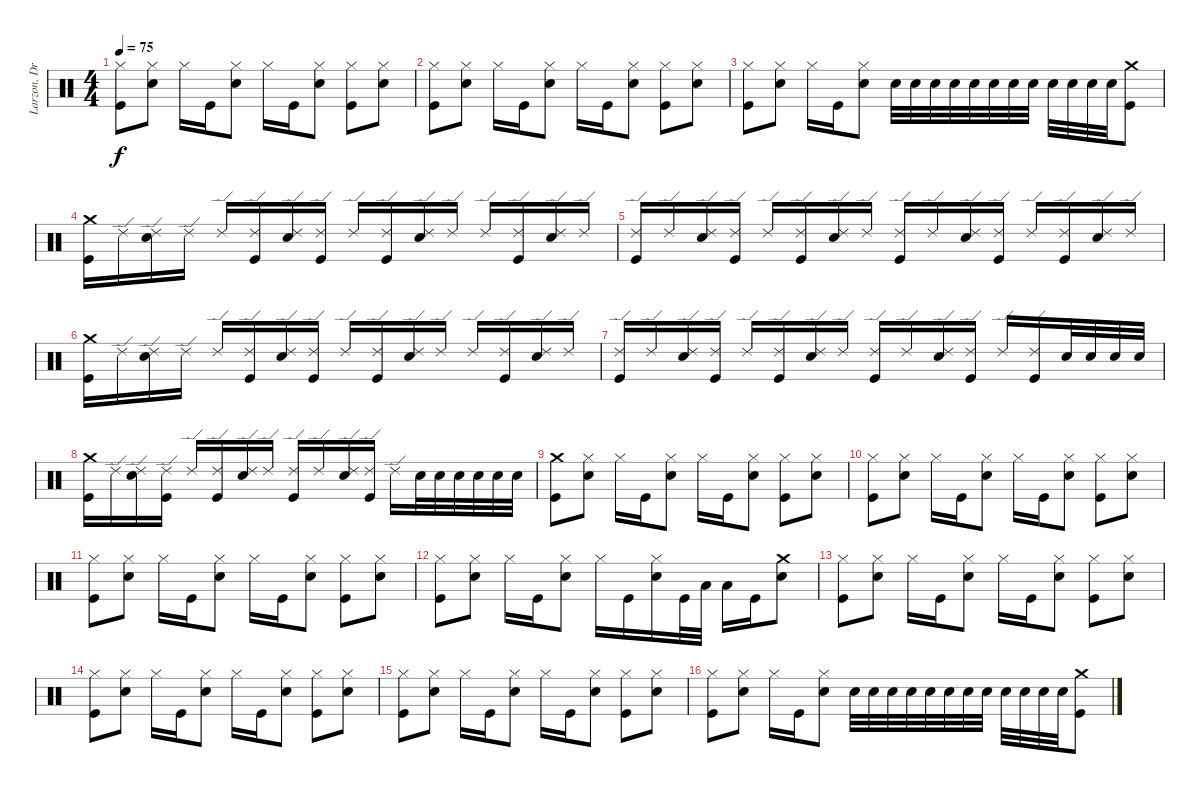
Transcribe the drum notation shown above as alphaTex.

\track ("Larzon, Drums" "Larzon, Dr") {instrument percussion}
\staff {score}
\articulation defaults
\ts (4 4)
\tempo 75
\clef neutral
\ks c
("Hi-Hat (closed)" "Kick (hit)").8{dy f} ("Hi-Hat (closed)" "Snare (hit) 2").8 "Hi-Hat (closed)".16 "Kick (hit)".16 ("Hi-Hat (closed)" "Snare (hit) 2").8 "Hi-Hat (closed)".16 "Kick (hit)".16 ("Hi-Hat (closed)" "Snare (hit) 2").8 ("Hi-Hat (closed)" "Kick (hit)").8 ("Hi-Hat (closed)" "Snare (hit) 2").8 |
("Hi-Hat (closed)" "Kick (hit)").8 ("Hi-Hat (closed)" "Snare (hit) 2").8 "Hi-Hat (closed)".16 "Kick (hit)".16 ("Hi-Hat (closed)" "Snare (hit) 2").8 "Hi-Hat (closed)".16 "Kick (hit)".16 ("Hi-Hat (closed)" "Snare (hit) 2").8 ("Hi-Hat (closed)" "Kick (hit)").8 ("Hi-Hat (closed)" "Snare (hit) 2").8 |
("Hi-Hat (closed)" "Kick (hit)").8 ("Hi-Hat (closed)" "Snare (hit) 2").8 "Hi-Hat (closed)".16 "Kick (hit)".16 ("Hi-Hat (closed)" "Snare (hit) 2").8 "Snare (hit) 2".32 "Snare (hit) 2".32 "Snare (hit) 2".32 "Snare (hit) 2".32 "Snare (hit) 2".32 "Snare (hit) 2".32 "Snare (hit) 2".32 "Snare (hit) 2".32 "Snare (hit) 2".32 "Snare (hit) 2".32 "Snare (hit) 2".32 "Snare (hit) 2".32 ("Crash medium (hit)" "Kick (hit)").8 |
("Crash medium (hit)" "Kick (hit)").16 "Ride (edge) 2".16 ("Ride (edge) 2" "Snare (hit) 2").16 "Ride (edge) 2".16 "Ride (edge) 2".16 ("Ride (edge) 2" "Kick (hit)").16 ("Ride (edge) 2" "Snare (hit) 2").16 ("Ride (edge) 2" "Kick (hit)").16 "Ride (edge) 2".16 ("Ride (edge) 2" "Kick (hit)").16 ("Ride (edge) 2" "Snare (hit) 2").16 "Ride (edge) 2".16 "Ride (edge) 2".16 ("Ride (edge) 2" "Kick (hit)").16 ("Ride (edge) 2" "Snare (hit) 2").16 "Ride (edge) 2".16 |
("Ride (edge) 2" "Kick (hit)").16 "Ride (edge) 2".16 ("Ride (edge) 2" "Snare (hit) 2").16 ("Ride (edge) 2" "Kick (hit)").16 "Ride (edge) 2".16 ("Ride (edge) 2" "Kick (hit)").16 ("Ride (edge) 2" "Snare (hit) 2").16 "Ride (edge) 2".16 ("Ride (edge) 2" "Kick (hit)").16 "Ride (edge) 2".16 ("Ride (edge) 2" "Snare (hit) 2").16 ("Ride (edge) 2" "Kick (hit)").16 "Ride (edge) 2".16 ("Ride (edge) 2" "Kick (hit)").16 ("Ride (edge) 2" "Snare (hit) 2").16 "Ride (edge) 2".16 |
("Crash medium (hit)" "Kick (hit)").16 "Ride (edge) 2".16 ("Ride (edge) 2" "Snare (hit) 2").16 "Ride (edge) 2".16 "Ride (edge) 2".16 ("Ride (edge) 2" "Kick (hit)").16 ("Ride (edge) 2" "Snare (hit) 2").16 ("Ride (edge) 2" "Kick (hit)").16 "Ride (edge) 2".16 ("Ride (edge) 2" "Kick (hit)").16 ("Ride (edge) 2" "Snare (hit) 2").16 "Ride (edge) 2".16 "Ride (edge) 2".16 ("Ride (edge) 2" "Kick (hit)").16 ("Ride (edge) 2" "Snare (hit) 2").16 "Ride (edge) 2".16 |
("Ride (edge) 2" "Kick (hit)").16 "Ride (edge) 2".16 ("Ride (edge) 2" "Snare (hit) 2").16 ("Ride (edge) 2" "Kick (hit)").16 "Ride (edge) 2".16 ("Ride (edge) 2" "Kick (hit)").16 ("Ride (edge) 2" "Snare (hit) 2").16 "Ride (edge) 2".16 ("Ride (edge) 2" "Kick (hit)").16 "Ride (edge) 2".16 ("Ride (edge) 2" "Snare (hit) 2").16 ("Ride (edge) 2" "Kick (hit)").16 "Ride (edge) 2".16 ("Ride (edge) 2" "Kick (hit)").16 "Snare (hit) 2".32 "Snare (hit) 2".32 "Snare (hit) 2".32 "Snare (hit) 2".32 |
("Crash medium (hit)" "Kick (hit)").16 "Ride (edge) 2".16 ("Ride (edge) 2" "Snare (hit) 2").16 ("Ride (edge) 2" "Kick (hit)").16 "Ride (edge) 2".16 ("Ride (edge) 2" "Kick (hit)").16 ("Ride (edge) 2" "Snare (hit) 2").16 "Ride (edge) 2".16 ("Ride (edge) 2" "Kick (hit)").16 "Ride (edge) 2".16 ("Ride (edge) 2" "Snare (hit) 2").16 ("Ride (edge) 2" "Kick (hit)").16 "Ride (edge) 2".16 "Snare (hit) 2".32 "Snare (hit) 2".32 "Snare (hit) 2".32 "Snare (hit) 2".32 "Snare (hit) 2".32 "Snare (hit) 2".32 |
("Crash medium (hit)" "Kick (hit)").8 ("Hi-Hat (closed)" "Snare (hit) 2").8 "Hi-Hat (closed)".16 "Kick (hit)".16 ("Hi-Hat (closed)" "Snare (hit) 2").8 "Hi-Hat (closed)".16 "Kick (hit)".16 ("Hi-Hat (closed)" "Snare (hit) 2").8 ("Hi-Hat (closed)" "Kick (hit)").8 ("Hi-Hat (closed)" "Snare (hit) 2").8 |
("Hi-Hat (closed)" "Kick (hit)").8 ("Hi-Hat (closed)" "Snare (hit) 2").8 "Hi-Hat (closed)".16 "Kick (hit)".16 ("Hi-Hat (closed)" "Snare (hit) 2").8 "Hi-Hat (closed)".16 "Kick (hit)".16 ("Hi-Hat (closed)" "Snare (hit) 2").8 ("Hi-Hat (closed)" "Kick (hit)").8 ("Hi-Hat (closed)" "Snare (hit) 2").8 |
("Hi-Hat (closed)" "Kick (hit)").8 ("Hi-Hat (closed)" "Snare (hit) 2").8 "Hi-Hat (closed)".16 "Kick (hit)".16 ("Hi-Hat (closed)" "Snare (hit) 2").8 "Hi-Hat (closed)".16 "Kick (hit)".16 ("Hi-Hat (closed)" "Snare (hit) 2").8 ("Hi-Hat (closed)" "Kick (hit)").8 ("Hi-Hat (closed)" "Snare (hit) 2").8 |
("Hi-Hat (closed)" "Kick (hit)").8 ("Hi-Hat (closed)" "Snare (hit) 2").8 "Hi-Hat (closed)".16 "Kick (hit)".16 ("Hi-Hat (closed)" "Snare (hit) 2").8 "Hi-Hat (closed)".16 "Kick (hit)".16 ("Hi-Hat (closed)" "Snare (hit) 2").16 "Kick (hit)".32 "Low Tom (hit)".32 "Low Floor Tom (hit)".16 "Kick (hit)".16 ("Crash medium (hit)" "Snare (hit) 2").8 |
("Hi-Hat (closed)" "Kick (hit)").8 ("Hi-Hat (closed)" "Snare (hit) 2").8 "Hi-Hat (closed)".16 "Kick (hit)".16 ("Hi-Hat (closed)" "Snare (hit) 2").8 "Hi-Hat (closed)".16 "Kick (hit)".16 ("Hi-Hat (closed)" "Snare (hit) 2").8 ("Hi-Hat (closed)" "Kick (hit)").8 ("Hi-Hat (closed)" "Snare (hit) 2").8 |
("Hi-Hat (closed)" "Kick (hit)").8 ("Hi-Hat (closed)" "Snare (hit) 2").8 "Hi-Hat (closed)".16 "Kick (hit)".16 ("Hi-Hat (closed)" "Snare (hit) 2").8 "Hi-Hat (closed)".16 "Kick (hit)".16 ("Hi-Hat (closed)" "Snare (hit) 2").8 ("Hi-Hat (closed)" "Kick (hit)").8 ("Hi-Hat (closed)" "Snare (hit) 2").8 |
("Hi-Hat (closed)" "Kick (hit)").8 ("Hi-Hat (closed)" "Snare (hit) 2").8 "Hi-Hat (closed)".16 "Kick (hit)".16 ("Hi-Hat (closed)" "Snare (hit) 2").8 "Hi-Hat (closed)".16 "Kick (hit)".16 ("Hi-Hat (closed)" "Snare (hit) 2").8 ("Hi-Hat (closed)" "Kick (hit)").8 ("Hi-Hat (closed)" "Snare (hit) 2").8 |
("Hi-Hat (closed)" "Kick (hit)").8 ("Hi-Hat (closed)" "Snare (hit) 2").8 "Hi-Hat (closed)".16 "Kick (hit)".16 ("Hi-Hat (closed)" "Snare (hit) 2").8 "Snare (hit) 2".32 "Snare (hit) 2".32 "Snare (hit) 2".32 "Snare (hit) 2".32 "Snare (hit) 2".32 "Snare (hit) 2".32 "Snare (hit) 2".32 "Snare (hit) 2".32 "Snare (hit) 2".32 "Snare (hit) 2".32 "Snare (hit) 2".32 "Snare (hit) 2".32 ("Crash medium (hit)" "Kick (hit)").8
